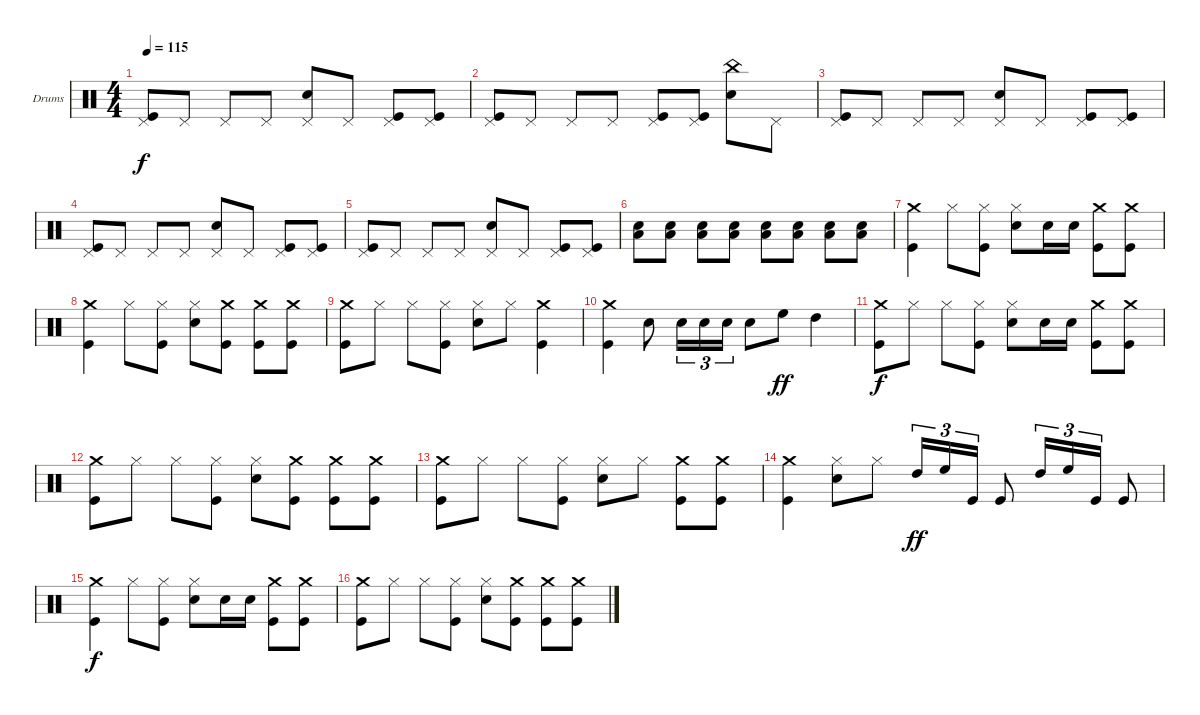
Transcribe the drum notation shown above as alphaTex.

\defaultSystemsLayout 4
\bracketExtendMode groupsimilarinstruments
\firstSystemTrackNameOrientation horizontal
\otherSystemsTrackNameOrientation horizontal
\track ("Drumkit" "Drums") {instrument percussion}
\staff {score}
\articulation defaults
\ts (4 4)
\tempo 115
\clef neutral
\ks c
("Kick (hit)" "Pedal Hi-Hat (hit)").8{dy f} "Pedal Hi-Hat (hit)".8 "Pedal Hi-Hat (hit)".8 "Pedal Hi-Hat (hit)".8 ("Pedal Hi-Hat (hit)" "Snare (hit) 2").8 "Pedal Hi-Hat (hit)".8 ("Pedal Hi-Hat (hit)" "Kick (hit)").8 ("Pedal Hi-Hat (hit)" "Kick (hit)").8 |
("Kick (hit)" "Pedal Hi-Hat (hit)").8 "Pedal Hi-Hat (hit)".8 "Pedal Hi-Hat (hit)".8 "Pedal Hi-Hat (hit)".8 ("Pedal Hi-Hat (hit)" "Kick (hit)").8 ("Pedal Hi-Hat (hit)" "Kick (hit)").8 ("China (hit)" "Snare (hit) 2").8 "Pedal Hi-Hat (hit)".8 |
("Pedal Hi-Hat (hit)" "Kick (hit)").8 "Pedal Hi-Hat (hit)".8 "Pedal Hi-Hat (hit)".8 "Pedal Hi-Hat (hit)".8 ("Pedal Hi-Hat (hit)" "Snare (hit) 2").8 "Pedal Hi-Hat (hit)".8 ("Pedal Hi-Hat (hit)" "Kick (hit)").8 ("Pedal Hi-Hat (hit)" "Kick (hit)").8 |
("Kick (hit)" "Pedal Hi-Hat (hit)").8 "Pedal Hi-Hat (hit)".8 "Pedal Hi-Hat (hit)".8 "Pedal Hi-Hat (hit)".8 ("Pedal Hi-Hat (hit)" "Snare (hit) 2").8 "Pedal Hi-Hat (hit)".8 ("Pedal Hi-Hat (hit)" "Kick (hit)").8 ("Pedal Hi-Hat (hit)" "Kick (hit)").8 |
("Kick (hit)" "Pedal Hi-Hat (hit)").8 "Pedal Hi-Hat (hit)".8 "Pedal Hi-Hat (hit)".8 "Pedal Hi-Hat (hit)".8 ("Pedal Hi-Hat (hit)" "Snare (hit) 2").8 "Pedal Hi-Hat (hit)".8 ("Pedal Hi-Hat (hit)" "Kick (hit)").8 ("Pedal Hi-Hat (hit)" "Kick (hit)").8 |
("Low Tom (hit)" "Snare (hit) 2").8 ("Snare (hit) 2" "Low Tom (hit)").8 ("Low Tom (hit)" "Snare (hit) 2").8 ("Snare (hit) 2" "Low Tom (hit)").8 ("Low Tom (hit)" "Snare (hit) 2").8 ("Snare (hit) 2" "Low Tom (hit)").8 ("Low Tom (hit)" "Snare (hit) 2").8 ("Snare (hit) 2" "Low Tom (hit)").8 |
("Crash medium (hit)" "Kick (hit)").4 "Hi-Hat (closed)".8 ("Hi-Hat (closed)" "Kick (hit)").8 ("Hi-Hat (closed)" "Snare (hit) 2").8 "Snare (hit) 2".16 "Snare (hit) 2".16 ("Crash medium (hit)" "Kick (hit)").8 ("Crash medium (hit)" "Kick (hit)").8 |
("Crash medium (hit)" "Kick (hit)").4 "Hi-Hat (closed)".8 ("Hi-Hat (closed)" "Kick (hit)").8 ("Hi-Hat (closed)" "Snare (hit) 2").8 ("Crash medium (hit)" "Kick (hit)").8 ("Crash medium (hit)" "Kick (hit)").8 ("Crash medium (hit)" "Kick (hit)").8 |
("Crash medium (hit)" "Kick (hit)").8 "Hi-Hat (closed)".8 "Hi-Hat (closed)".8 ("Hi-Hat (closed)" "Kick (hit)").8 ("Hi-Hat (closed)" "Snare (hit) 2").8 "Hi-Hat (closed)".8 ("Crash medium (hit)" "Kick (hit)").4 |
("Crash medium (hit)" "Kick (hit)").4 "Snare (hit) 2".8 "Snare (hit) 2".16{tu (3 2)} "Snare (hit) 2".16{tu (3 2)} "Snare (hit) 2".16{tu (3 2)} "Snare (hit) 2".8 "High Floor Tom (hit)".8{dy ff} "High Tom (hit)".4 |
("Crash medium (hit)" "Kick (hit)").8{dy f} "Hi-Hat (closed)".8 "Hi-Hat (closed)".8 ("Hi-Hat (closed)" "Kick (hit)").8 ("Hi-Hat (closed)" "Snare (hit) 2").8 "Snare (hit) 2".16 "Snare (hit) 2".16 ("Crash medium (hit)" "Kick (hit)").8 ("Crash medium (hit)" "Kick (hit)").8 |
("Crash medium (hit)" "Kick (hit)").8 "Hi-Hat (closed)".8 "Hi-Hat (closed)".8 ("Hi-Hat (closed)" "Kick (hit)").8 ("Hi-Hat (closed)" "Snare (hit) 2").8 ("Crash medium (hit)" "Kick (hit)").8 ("Crash medium (hit)" "Kick (hit)").8 ("Crash medium (hit)" "Kick (hit)").8 |
("Crash medium (hit)" "Kick (hit)").8 "Hi-Hat (closed)".8 "Hi-Hat (closed)".8 ("Hi-Hat (closed)" "Kick (hit)").8 ("Hi-Hat (closed)" "Snare (hit) 2").8 "Hi-Hat (closed)".8 ("Crash medium (hit)" "Kick (hit)").8 ("Crash medium (hit)" "Kick (hit)").8 |
("Crash medium (hit)" "Kick (hit)").4 ("Hi-Hat (closed)" "Snare (hit) 2").8 "Hi-Hat (closed)".8 "High Tom (hit)".16{tu (3 2) dy ff} "High Floor Tom (hit)".16{tu (3 2)} "Kick (hit)".16{tu (3 2)} "Kick (hit)".8 "High Tom (hit)".16{tu (3 2)} "High Floor Tom (hit)".16{tu (3 2)} "Kick (hit)".16{tu (3 2)} "Kick (hit)".8 |
("Crash medium (hit)" "Kick (hit)").4{dy f} "Hi-Hat (closed)".8 ("Hi-Hat (closed)" "Kick (hit)").8 ("Hi-Hat (closed)" "Snare (hit) 2").8 "Snare (hit) 2".16 "Snare (hit) 2".16 ("Crash medium (hit)" "Kick (hit)").8 ("Crash medium (hit)" "Kick (hit)").8 |
("Crash medium (hit)" "Kick (hit)").8 "Hi-Hat (closed)".8 "Hi-Hat (closed)".8 ("Hi-Hat (closed)" "Kick (hit)").8 ("Hi-Hat (closed)" "Snare (hit) 2").8 ("Crash medium (hit)" "Kick (hit)").8 ("Crash medium (hit)" "Kick (hit)").8 ("Crash medium (hit)" "Kick (hit)").8
